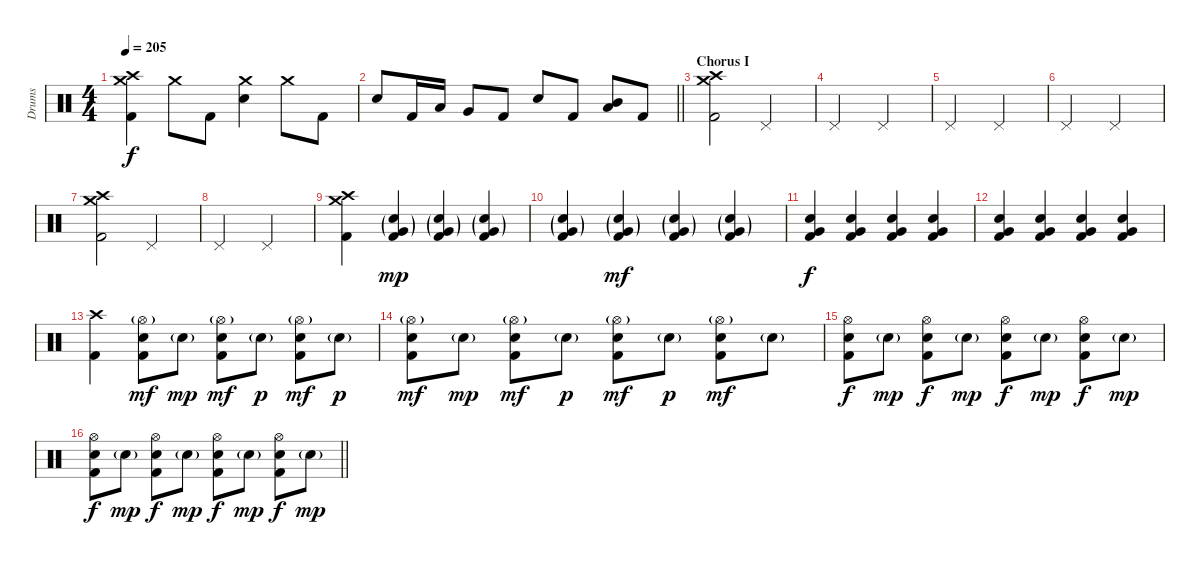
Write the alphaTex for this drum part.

\track ("Drums" "Drums") {instrument percussion}
\staff {score}
\articulation defaults
\ts (4 4)
\tempo 205
\clef neutral
\ks c
("Crash high (hit)" "Crash medium (hit)" "Kick (hit) 2").4{dy f} "Crash medium (hit)".8 "Kick (hit) 2".8 ("Crash medium (hit)" "Electric Snare (hit)").4 "Crash medium (hit)".8 "Kick (hit) 2".8 |
\barLineRight lightlight "Electric Snare (hit)".8 "Kick (hit) 2".16 "Low Tom (hit)".16 "Very Low Tom (hit)".8 "Kick (hit) 2".8 "Electric Snare (hit)".8 "Kick (hit) 2".8
("Mid Tom (hit)" "Low Tom (hit)").8 "Kick (hit) 2".8 |
\section ("" "Chorus I")
("Crash high (hit)" "Crash medium (hit)" "Kick (hit) 2").2 "Pedal Hi-Hat (hit)".2 |
"Pedal Hi-Hat (hit)".2 "Pedal Hi-Hat (hit)".2 |
"Pedal Hi-Hat (hit)".2 "Pedal Hi-Hat (hit)".2 |
"Pedal Hi-Hat (hit)".2 "Pedal Hi-Hat (hit)".2 |
("Crash high (hit)" "Crash medium (hit)" "Kick (hit) 2").2 "Pedal Hi-Hat (hit)".2 |
"Pedal Hi-Hat (hit)".2 "Pedal Hi-Hat (hit)".2 |
("Crash high (hit)" "Crash medium (hit)" "Kick (hit) 2").4 ("Electric Snare (hit)"{g} "Very Low Tom (hit)"{g} "Kick (hit) 2").4{dy mp} ("Electric Snare (hit)"{g} "Very Low Tom (hit)"{g} "Kick (hit) 2").4 ("Electric Snare (hit)"{g} "Very Low Tom (hit)"{g} "Kick (hit) 2").4 |
("Electric Snare (hit)"{g} "Very Low Tom (hit)"{g} "Kick (hit) 2").4 ("Electric Snare (hit)"{g} "Very Low Tom (hit)"{g} "Kick (hit) 2").4{dy mf} ("Electric Snare (hit)"{g} "Very Low Tom (hit)"{g} "Kick (hit) 2").4 ("Electric Snare (hit)"{g} "Very Low Tom (hit)"{g} "Kick (hit) 2").4 |
("Electric Snare (hit)" "Very Low Tom (hit)" "Kick (hit) 2").4{dy f} ("Electric Snare (hit)" "Very Low Tom (hit)" "Kick (hit) 2").4 ("Electric Snare (hit)" "Very Low Tom (hit)" "Kick (hit) 2").4 ("Electric Snare (hit)" "Very Low Tom (hit)" "Kick (hit) 2").4 |
("Electric Snare (hit)" "Very Low Tom (hit)" "Kick (hit) 2").4 ("Electric Snare (hit)" "Very Low Tom (hit)" "Kick (hit) 2").4 ("Electric Snare (hit)" "Very Low Tom (hit)" "Kick (hit) 2").4 ("Electric Snare (hit)" "Very Low Tom (hit)" "Kick (hit) 2").4 |
("Crash high (hit)" "Kick (hit) 2").4 ("Hi-Hat (open)"{g} "Electric Snare (hit)" "Kick (hit) 2").8{dy mf} "Electric Snare (hit)"{g}.8{dy mp} ("Hi-Hat (open)"{g} "Electric Snare (hit)" "Kick (hit) 2").8{dy mf} "Electric Snare (hit)"{g}.8{dy p} ("Hi-Hat (open)"{g} "Electric Snare (hit)" "Kick (hit) 2").8{dy mf} "Electric Snare (hit)"{g}.8{dy p} |
("Hi-Hat (open)"{g} "Electric Snare (hit)" "Kick (hit) 2").8{dy mf} "Electric Snare (hit)"{g}.8{dy mp} ("Hi-Hat (open)"{g} "Electric Snare (hit)" "Kick (hit) 2").8{dy mf} "Electric Snare (hit)"{g}.8{dy p} ("Hi-Hat (open)"{g} "Electric Snare (hit)" "Kick (hit) 2").8{dy mf} "Electric Snare (hit)"{g}.8{dy p} ("Hi-Hat (open)"{g} "Electric Snare (hit)" "Kick (hit) 2").8{dy mf} "Electric Snare (hit)"{g}.8 |
("Hi-Hat (open)" "Electric Snare (hit)" "Kick (hit) 2").8{dy f} "Electric Snare (hit)"{g}.8{dy mp} ("Hi-Hat (open)" "Electric Snare (hit)" "Kick (hit) 2").8{dy f} "Electric Snare (hit)"{g}.8{dy mp} ("Hi-Hat (open)" "Electric Snare (hit)" "Kick (hit) 2").8{dy f} "Electric Snare (hit)"{g}.8{dy mp} ("Hi-Hat (open)" "Electric Snare (hit)" "Kick (hit) 2").8{dy f} "Electric Snare (hit)"{g}.8{dy mp} |
\barLineRight lightlight
("Hi-Hat (open)" "Electric Snare (hit)" "Kick (hit) 2").8{dy f} "Electric Snare (hit)"{g}.8{dy mp} ("Hi-Hat (open)" "Electric Snare (hit)" "Kick (hit) 2").8{dy f} "Electric Snare (hit)"{g}.8{dy mp} ("Hi-Hat (open)" "Electric Snare (hit)" "Kick (hit) 2").8{dy f} "Electric Snare (hit)"{g}.8{dy mp} ("Hi-Hat (open)" "Electric Snare (hit)" "Kick (hit) 2").8{dy f} "Electric Snare (hit)"{g}.8{dy mp}
